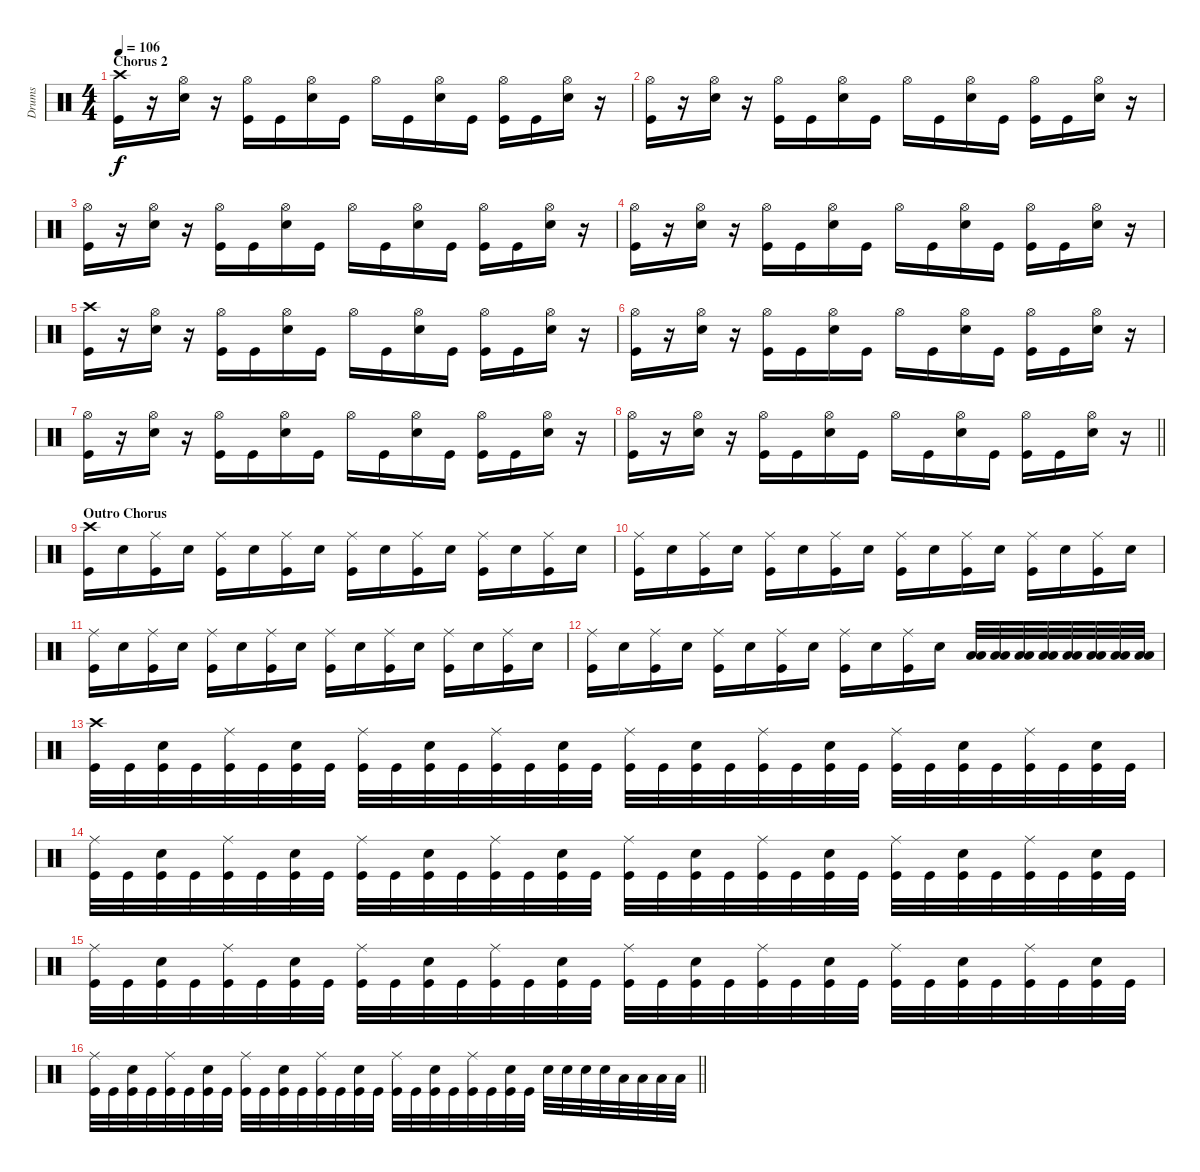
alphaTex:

\track ("Drums" "Drums") {instrument percussion}
\staff {score}
\articulation defaults
\ts (4 4)
\section ("" "Chorus 2")
\tempo 110
\tempo 106
\clef neutral
\ks c
("Crash high (hit)" "Kick (hit)").16{dy f} r.16 ("Hi-Hat (open)" "Snare (hit) 2").16 r.16 ("Hi-Hat (open)" "Kick (hit)").16 "Kick (hit)".16 ("Hi-Hat (open)" "Snare (hit) 2").16 "Kick (hit)".16 "Hi-Hat (open)".16 "Kick (hit)".16 ("Hi-Hat (open)" "Snare (hit) 2").16 "Kick (hit)".16 ("Hi-Hat (open)" "Kick (hit)").16 "Kick (hit)".16 ("Hi-Hat (open)" "Snare (hit) 2").16 r.16 |
("Hi-Hat (open)" "Kick (hit)").16 r.16 ("Hi-Hat (open)" "Snare (hit) 2").16 r.16 ("Hi-Hat (open)" "Kick (hit)").16 "Kick (hit)".16 ("Hi-Hat (open)" "Snare (hit) 2").16 "Kick (hit)".16 "Hi-Hat (open)".16 "Kick (hit)".16 ("Hi-Hat (open)" "Snare (hit) 2").16 "Kick (hit)".16 ("Hi-Hat (open)" "Kick (hit)").16 "Kick (hit)".16 ("Hi-Hat (open)" "Snare (hit) 2").16 r.16 |
("Hi-Hat (open)" "Kick (hit)").16 r.16 ("Hi-Hat (open)" "Snare (hit) 2").16 r.16 ("Hi-Hat (open)" "Kick (hit)").16 "Kick (hit)".16 ("Hi-Hat (open)" "Snare (hit) 2").16 "Kick (hit)".16 "Hi-Hat (open)".16 "Kick (hit)".16 ("Hi-Hat (open)" "Snare (hit) 2").16 "Kick (hit)".16 ("Hi-Hat (open)" "Kick (hit)").16 "Kick (hit)".16 ("Hi-Hat (open)" "Snare (hit) 2").16 r.16 |
("Hi-Hat (open)" "Kick (hit)").16 r.16 ("Hi-Hat (open)" "Snare (hit) 2").16 r.16 ("Hi-Hat (open)" "Kick (hit)").16 "Kick (hit)".16 ("Hi-Hat (open)" "Snare (hit) 2").16 "Kick (hit)".16 "Hi-Hat (open)".16 "Kick (hit)".16 ("Hi-Hat (open)" "Snare (hit) 2").16 "Kick (hit)".16 ("Hi-Hat (open)" "Kick (hit)").16 "Kick (hit)".16 ("Hi-Hat (open)" "Snare (hit) 2").16 r.16 |
("Crash high (hit)" "Kick (hit)").16 r.16 ("Hi-Hat (open)" "Snare (hit) 2").16 r.16 ("Hi-Hat (open)" "Kick (hit)").16 "Kick (hit)".16 ("Hi-Hat (open)" "Snare (hit) 2").16 "Kick (hit)".16 "Hi-Hat (open)".16 "Kick (hit)".16 ("Hi-Hat (open)" "Snare (hit) 2").16 "Kick (hit)".16 ("Hi-Hat (open)" "Kick (hit)").16 "Kick (hit)".16 ("Hi-Hat (open)" "Snare (hit) 2").16 r.16 |
("Hi-Hat (open)" "Kick (hit)").16 r.16 ("Hi-Hat (open)" "Snare (hit) 2").16 r.16 ("Hi-Hat (open)" "Kick (hit)").16 "Kick (hit)".16 ("Hi-Hat (open)" "Snare (hit) 2").16 "Kick (hit)".16 "Hi-Hat (open)".16 "Kick (hit)".16 ("Hi-Hat (open)" "Snare (hit) 2").16 "Kick (hit)".16 ("Hi-Hat (open)" "Kick (hit)").16 "Kick (hit)".16 ("Hi-Hat (open)" "Snare (hit) 2").16 r.16 |
("Hi-Hat (open)" "Kick (hit)").16 r.16 ("Hi-Hat (open)" "Snare (hit) 2").16 r.16 ("Hi-Hat (open)" "Kick (hit)").16 "Kick (hit)".16 ("Hi-Hat (open)" "Snare (hit) 2").16 "Kick (hit)".16 "Hi-Hat (open)".16 "Kick (hit)".16 ("Hi-Hat (open)" "Snare (hit) 2").16 "Kick (hit)".16 ("Hi-Hat (open)" "Kick (hit)").16 "Kick (hit)".16 ("Hi-Hat (open)" "Snare (hit) 2").16 r.16 |
\barLineRight lightlight
("Hi-Hat (open)" "Kick (hit)").16 r.16 ("Hi-Hat (open)" "Snare (hit) 2").16 r.16 ("Hi-Hat (open)" "Kick (hit)").16 "Kick (hit)".16 ("Hi-Hat (open)" "Snare (hit) 2").16 "Kick (hit)".16 "Hi-Hat (open)".16 "Kick (hit)".16 ("Hi-Hat (open)" "Snare (hit) 2").16 "Kick (hit)".16 ("Hi-Hat (open)" "Kick (hit)").16 "Kick (hit)".16 ("Hi-Hat (open)" "Snare (hit) 2").16 r.16 |
\section ("" "Outro Chorus")
("Crash high (hit)" "Kick (hit)").16 "Snare (hit) 2".16 ("Ride (middle)" "Kick (hit)").16 "Snare (hit) 2".16 ("Ride (middle)" "Kick (hit)").16 "Snare (hit) 2".16 ("Ride (middle)" "Kick (hit)").16 "Snare (hit) 2".16 ("Ride (middle)" "Kick (hit)").16 "Snare (hit) 2".16 ("Ride (middle)" "Kick (hit)").16 "Snare (hit) 2".16 ("Ride (middle)" "Kick (hit)").16 "Snare (hit) 2".16 ("Ride (middle)" "Kick (hit)").16 "Snare (hit) 2".16 |
("Ride (middle)" "Kick (hit)").16 "Snare (hit) 2".16 ("Ride (middle)" "Kick (hit)").16 "Snare (hit) 2".16 ("Ride (middle)" "Kick (hit)").16 "Snare (hit) 2".16 ("Ride (middle)" "Kick (hit)").16 "Snare (hit) 2".16 ("Ride (middle)" "Kick (hit)").16 "Snare (hit) 2".16 ("Ride (middle)" "Kick (hit)").16 "Snare (hit) 2".16 ("Ride (middle)" "Kick (hit)").16 "Snare (hit) 2".16 ("Ride (middle)" "Kick (hit)").16 "Snare (hit) 2".16 |
("Ride (middle)" "Kick (hit)").16 "Snare (hit) 2".16 ("Ride (middle)" "Kick (hit)").16 "Snare (hit) 2".16 ("Ride (middle)" "Kick (hit)").16 "Snare (hit) 2".16 ("Ride (middle)" "Kick (hit)").16 "Snare (hit) 2".16 ("Ride (middle)" "Kick (hit)").16 "Snare (hit) 2".16 ("Ride (middle)" "Kick (hit)").16 "Snare (hit) 2".16 ("Ride (middle)" "Kick (hit)").16 "Snare (hit) 2".16 ("Ride (middle)" "Kick (hit)").16 "Snare (hit) 2".16 |
("Ride (middle)" "Kick (hit)").16 "Snare (hit) 2".16 ("Ride (middle)" "Kick (hit)").16 "Snare (hit) 2".16 ("Ride (middle)" "Kick (hit)").16 "Snare (hit) 2".16 ("Ride (middle)" "Kick (hit)").16 "Snare (hit) 2".16 ("Ride (middle)" "Kick (hit)").16 "Snare (hit) 2".16 ("Ride (middle)" "Kick (hit)").16 "Snare (hit) 2".16 ("Low Floor Tom (hit)" "Low Floor Tom (hit)").32 ("Low Floor Tom (hit)" "Low Floor Tom (hit)").32 ("Low Floor Tom (hit)" "Low Floor Tom (hit)").32 ("Low Floor Tom (hit)" "Low Floor Tom (hit)").32 ("Low Floor Tom (hit)" "Low Floor Tom (hit)").32 ("Low Floor Tom (hit)" "Low Floor Tom (hit)").32 ("Low Floor Tom (hit)" "Low Floor Tom (hit)").32 ("Low Floor Tom (hit)" "Low Floor Tom (hit)").32 |
("Crash high (hit)" "Kick (hit)").32 "Kick (hit)".32 ("Snare (hit) 2" "Kick (hit)").32 "Kick (hit)".32 ("Ride (middle)" "Kick (hit)").32 "Kick (hit)".32 ("Snare (hit) 2" "Kick (hit)").32 "Kick (hit)".32 ("Ride (middle)" "Kick (hit)").32 "Kick (hit)".32 ("Snare (hit) 2" "Kick (hit)").32 "Kick (hit)".32 ("Ride (middle)" "Kick (hit)").32 "Kick (hit)".32 ("Snare (hit) 2" "Kick (hit)").32 "Kick (hit)".32 ("Ride (middle)" "Kick (hit)").32 "Kick (hit)".32 ("Snare (hit) 2" "Kick (hit)").32 "Kick (hit)".32 ("Ride (middle)" "Kick (hit)").32 "Kick (hit)".32 ("Snare (hit) 2" "Kick (hit)").32 "Kick (hit)".32 ("Ride (middle)" "Kick (hit)").32 "Kick (hit)".32 ("Snare (hit) 2" "Kick (hit)").32 "Kick (hit)".32 ("Ride (middle)" "Kick (hit)").32 "Kick (hit)".32 ("Snare (hit) 2" "Kick (hit)").32 "Kick (hit)".32 |
("Ride (middle)" "Kick (hit)").32 "Kick (hit)".32 ("Snare (hit) 2" "Kick (hit)").32 "Kick (hit)".32 ("Ride (middle)" "Kick (hit)").32 "Kick (hit)".32 ("Snare (hit) 2" "Kick (hit)").32 "Kick (hit)".32 ("Ride (middle)" "Kick (hit)").32 "Kick (hit)".32 ("Snare (hit) 2" "Kick (hit)").32 "Kick (hit)".32 ("Ride (middle)" "Kick (hit)").32 "Kick (hit)".32 ("Snare (hit) 2" "Kick (hit)").32 "Kick (hit)".32 ("Ride (middle)" "Kick (hit)").32 "Kick (hit)".32 ("Snare (hit) 2" "Kick (hit)").32 "Kick (hit)".32 ("Ride (middle)" "Kick (hit)").32 "Kick (hit)".32 ("Snare (hit) 2" "Kick (hit)").32 "Kick (hit)".32 ("Ride (middle)" "Kick (hit)").32 "Kick (hit)".32 ("Snare (hit) 2" "Kick (hit)").32 "Kick (hit)".32 ("Ride (middle)" "Kick (hit)").32 "Kick (hit)".32 ("Snare (hit) 2" "Kick (hit)").32 "Kick (hit)".32 |
("Ride (middle)" "Kick (hit)").32 "Kick (hit)".32 ("Snare (hit) 2" "Kick (hit)").32 "Kick (hit)".32 ("Ride (middle)" "Kick (hit)").32 "Kick (hit)".32 ("Snare (hit) 2" "Kick (hit)").32 "Kick (hit)".32 ("Ride (middle)" "Kick (hit)").32 "Kick (hit)".32 ("Snare (hit) 2" "Kick (hit)").32 "Kick (hit)".32 ("Ride (middle)" "Kick (hit)").32 "Kick (hit)".32 ("Snare (hit) 2" "Kick (hit)").32 "Kick (hit)".32 ("Ride (middle)" "Kick (hit)").32 "Kick (hit)".32 ("Snare (hit) 2" "Kick (hit)").32 "Kick (hit)".32 ("Ride (middle)" "Kick (hit)").32 "Kick (hit)".32 ("Snare (hit) 2" "Kick (hit)").32 "Kick (hit)".32 ("Ride (middle)" "Kick (hit)").32 "Kick (hit)".32 ("Snare (hit) 2" "Kick (hit)").32 "Kick (hit)".32 ("Ride (middle)" "Kick (hit)").32 "Kick (hit)".32 ("Snare (hit) 2" "Kick (hit)").32 "Kick (hit)".32 |
\barLineRight lightlight
("Ride (middle)" "Kick (hit)").32 "Kick (hit)".32 ("Snare (hit) 2" "Kick (hit)").32 "Kick (hit)".32 ("Ride (middle)" "Kick (hit)").32 "Kick (hit)".32 ("Snare (hit) 2" "Kick (hit)").32 "Kick (hit)".32 ("Ride (middle)" "Kick (hit)").32 "Kick (hit)".32 ("Snare (hit) 2" "Kick (hit)").32 "Kick (hit)".32 ("Ride (middle)" "Kick (hit)").32 "Kick (hit)".32 ("Snare (hit) 2" "Kick (hit)").32 "Kick (hit)".32 ("Ride (middle)" "Kick (hit)").32 "Kick (hit)".32 ("Snare (hit) 2" "Kick (hit)").32 "Kick (hit)".32 ("Ride (middle)" "Kick (hit)").32 "Kick (hit)".32 ("Snare (hit) 2" "Kick (hit)").32 "Kick (hit)".32 "Snare (hit) 2".32 "Snare (hit) 2".32 "Snare (hit) 2".32 "Snare (hit) 2".32 "Low Floor Tom (hit)".32 "Low Floor Tom (hit)".32 "Low Floor Tom (hit)".32 "Low Floor Tom (hit)".32
